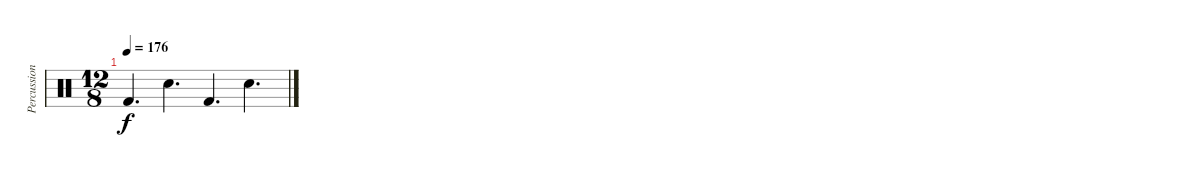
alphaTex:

\track ("Percussion" "Percussion") {instrument percussion}
\staff {score}
\articulation defaults
\ts (12 8)
\tempo 176
\clef neutral
\ks c "Kick (hit) 2".4{d dy f} "Snare (hit) 2".4{d} "Kick (hit) 2".4{d} "Snare (hit) 2".4{d}
